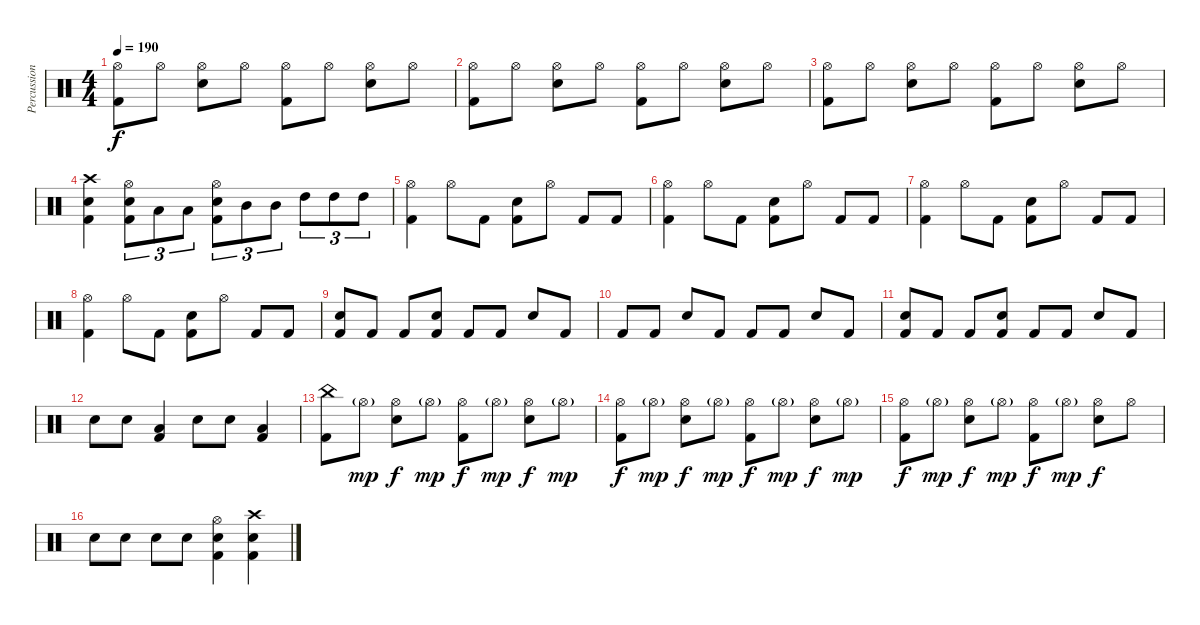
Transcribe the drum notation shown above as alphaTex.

\track ("Percussions" "Percussion") {instrument percussion}
\staff {score}
\articulation defaults
\ts (4 4)
\tempo 190
\clef neutral
\ks c
("Hi-Hat (open)" "Kick (hit) 2").8{dy f} "Hi-Hat (open)".8 ("Hi-Hat (open)" "Snare (hit) 2").8 "Hi-Hat (open)".8 ("Hi-Hat (open)" "Kick (hit) 2").8 "Hi-Hat (open)".8 ("Hi-Hat (open)" "Snare (hit) 2").8 "Hi-Hat (open)".8 |
("Hi-Hat (open)" "Kick (hit) 2").8 "Hi-Hat (open)".8 ("Hi-Hat (open)" "Snare (hit) 2").8 "Hi-Hat (open)".8 ("Hi-Hat (open)" "Kick (hit) 2").8 "Hi-Hat (open)".8 ("Hi-Hat (open)" "Snare (hit) 2").8 "Hi-Hat (open)".8 |
("Hi-Hat (open)" "Kick (hit) 2").8 "Hi-Hat (open)".8 ("Hi-Hat (open)" "Snare (hit) 2").8 "Hi-Hat (open)".8 ("Hi-Hat (open)" "Kick (hit) 2").8 "Hi-Hat (open)".8 ("Hi-Hat (open)" "Snare (hit) 2").8 "Hi-Hat (open)".8 |
("Crash high (hit)" "Snare (hit) 2" "Kick (hit) 2").4 ("Hi-Hat (open)" "Snare (hit) 2" "Kick (hit) 2").8{tu (3 2)} "Low Tom (hit)".8{tu (3 2)} "Low Tom (hit)".8{tu (3 2)} ("Hi-Hat (open)" "Snare (hit) 2" "Kick (hit) 2").8{tu (3 2)} "Mid Tom (hit)".8{tu (3 2)} "Mid Tom (hit)".8{tu (3 2)} "High Tom (hit)".8{tu (3 2)} "High Tom (hit)".8{tu (3 2)} "High Tom (hit)".8{tu (3 2)} |
("Hi-Hat (open)" "Kick (hit) 2").4 "Hi-Hat (open)".8 "Kick (hit) 2".8 ("Electric Snare (hit)" "Kick (hit) 2").8 "Hi-Hat (open)".8 "Kick (hit) 2".8 "Kick (hit) 2".8 |
("Hi-Hat (open)" "Kick (hit) 2").4 "Hi-Hat (open)".8 "Kick (hit) 2".8 ("Electric Snare (hit)" "Kick (hit) 2").8 "Hi-Hat (open)".8 "Kick (hit) 2".8 "Kick (hit) 2".8 |
("Hi-Hat (open)" "Kick (hit) 2").4 "Hi-Hat (open)".8 "Kick (hit) 2".8 ("Snare (hit) 2" "Kick (hit) 2").8 "Hi-Hat (open)".8 "Kick (hit) 2".8 "Kick (hit) 2".8 |
("Hi-Hat (open)" "Kick (hit) 2").4 "Hi-Hat (open)".8 "Kick (hit) 2".8 ("Snare (hit) 2" "Kick (hit) 2").8 "Hi-Hat (open)".8 "Kick (hit) 2".8 "Kick (hit) 2".8 |
("Snare (hit) 2" "Kick (hit) 2").8 "Kick (hit) 2".8 "Kick (hit) 2".8 ("Snare (hit) 2" "Kick (hit) 2").8 "Kick (hit) 2".8 "Kick (hit) 2".8 "Snare (hit) 2".8 "Kick (hit) 2".8 |
"Kick (hit) 2".8 "Kick (hit) 2".8 "Snare (hit) 2".8 "Kick (hit) 2".8 "Kick (hit) 2".8 "Kick (hit) 2".8 "Snare (hit) 2".8 "Kick (hit) 2".8 |
("Snare (hit) 2" "Kick (hit) 2").8 "Kick (hit) 2".8 "Kick (hit) 2".8 ("Snare (hit) 2" "Kick (hit) 2").8 "Kick (hit) 2".8 "Kick (hit) 2".8 "Snare (hit) 2".8 "Kick (hit) 2".8 |
"Snare (hit) 2".8 "Snare (hit) 2".8 ("Low Floor Tom (hit)" "Kick (hit) 2").4 "Snare (hit) 2".8 "Snare (hit) 2".8 ("Low Floor Tom (hit)" "Kick (hit) 2").4 |
("China (hit)" "Kick (hit) 2").8 "Hi-Hat (open)"{g}.8{dy mp} ("Hi-Hat (open)" "Snare (hit) 2").8{dy f} "Hi-Hat (open)"{g}.8{dy mp} ("Hi-Hat (open)" "Kick (hit) 2").8{dy f} "Hi-Hat (open)"{g}.8{dy mp} ("Hi-Hat (open)" "Snare (hit) 2").8{dy f} "Hi-Hat (open)"{g}.8{dy mp} |
("Hi-Hat (open)" "Kick (hit) 2").8{dy f} "Hi-Hat (open)"{g}.8{dy mp} ("Hi-Hat (open)" "Snare (hit) 2").8{dy f} "Hi-Hat (open)"{g}.8{dy mp} ("Hi-Hat (open)" "Kick (hit) 2").8{dy f} "Hi-Hat (open)"{g}.8{dy mp} ("Hi-Hat (open)" "Snare (hit) 2").8{dy f} "Hi-Hat (open)"{g}.8{dy mp} |
("Hi-Hat (open)" "Kick (hit) 2").8{dy f} "Hi-Hat (open)"{g}.8{dy mp} ("Hi-Hat (open)" "Snare (hit) 2").8{dy f} "Hi-Hat (open)"{g}.8{dy mp} ("Hi-Hat (open)" "Kick (hit) 2").8{dy f} "Hi-Hat (open)"{g}.8{dy mp} ("Hi-Hat (open)" "Snare (hit) 2").8{dy f} "Hi-Hat (open)".8 |
"Snare (hit) 2".8 "Snare (hit) 2".8 "Snare (hit) 2".8 "Snare (hit) 2".8 ("Hi-Hat (open)" "Snare (hit) 2" "Kick (hit) 2").4 ("Crash high (hit)" "Snare (hit) 2" "Kick (hit) 2").4
